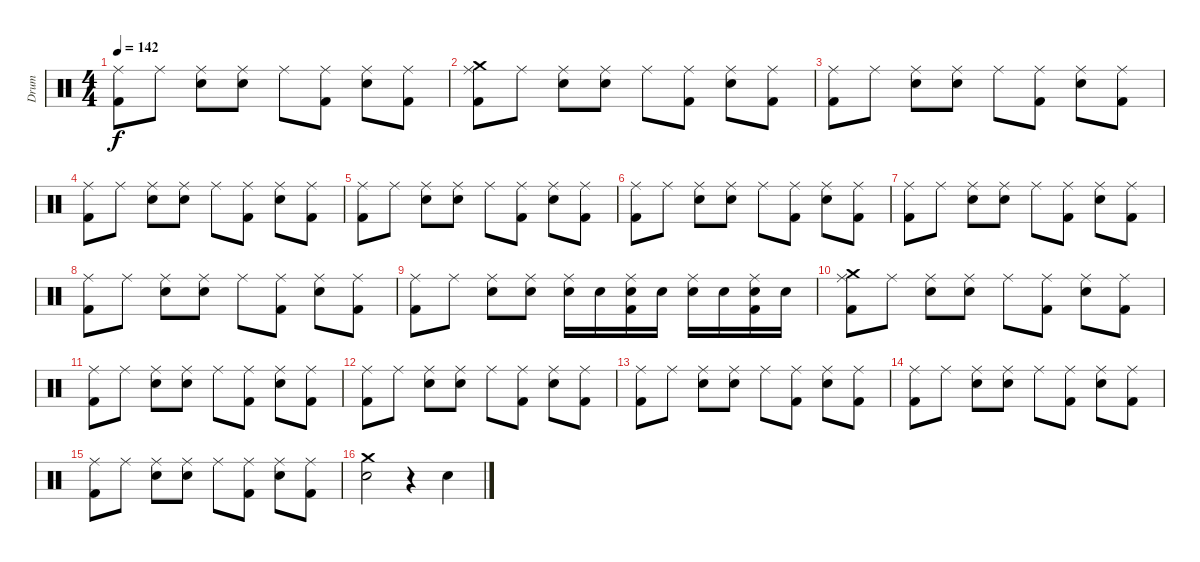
\track ("Drum" "Drum") {instrument percussion}
\staff {score}
\articulation defaults
\ts (4 4)
\tempo 142
\clef neutral
\ks c
("Kick (hit) 2" "Ride (middle)").8{dy f} "Ride (middle)".8 ("Electric Snare (hit)" "Ride (middle)").8 ("Electric Snare (hit)" "Ride (middle)").8 "Ride (middle)".8 ("Ride (middle)" "Kick (hit) 2").8 ("Ride (middle)" "Electric Snare (hit)").8 ("Ride (middle)" "Kick (hit) 2").8 |
("Kick (hit) 2" "Ride (middle)" "Crash medium (hit)").8 "Ride (middle)".8 ("Electric Snare (hit)" "Ride (middle)").8 ("Electric Snare (hit)" "Ride (middle)").8 "Ride (middle)".8 ("Ride (middle)" "Kick (hit) 2").8 ("Ride (middle)" "Electric Snare (hit)").8 ("Ride (middle)" "Kick (hit) 2").8 |
("Kick (hit) 2" "Ride (middle)").8 "Ride (middle)".8 ("Electric Snare (hit)" "Ride (middle)").8 ("Electric Snare (hit)" "Ride (middle)").8 "Ride (middle)".8 ("Ride (middle)" "Kick (hit) 2").8 ("Ride (middle)" "Electric Snare (hit)").8 ("Ride (middle)" "Kick (hit) 2").8 |
("Kick (hit) 2" "Ride (middle)").8 "Ride (middle)".8 ("Electric Snare (hit)" "Ride (middle)").8 ("Electric Snare (hit)" "Ride (middle)").8 "Ride (middle)".8 ("Ride (middle)" "Kick (hit) 2").8 ("Ride (middle)" "Electric Snare (hit)").8 ("Ride (middle)" "Kick (hit) 2").8 |
("Kick (hit) 2" "Ride (middle)").8 "Ride (middle)".8 ("Electric Snare (hit)" "Ride (middle)").8 ("Electric Snare (hit)" "Ride (middle)").8 "Ride (middle)".8 ("Ride (middle)" "Kick (hit) 2").8 ("Ride (middle)" "Electric Snare (hit)").8 ("Ride (middle)" "Kick (hit) 2").8 |
("Kick (hit) 2" "Ride (middle)").8 "Ride (middle)".8 ("Electric Snare (hit)" "Ride (middle)").8 ("Electric Snare (hit)" "Ride (middle)").8 "Ride (middle)".8 ("Ride (middle)" "Kick (hit) 2").8 ("Ride (middle)" "Electric Snare (hit)").8 ("Ride (middle)" "Kick (hit) 2").8 |
("Ride (middle)" "Kick (hit) 2").8 "Ride (middle)".8 ("Electric Snare (hit)" "Ride (middle)").8 ("Electric Snare (hit)" "Ride (middle)").8 "Ride (middle)".8 ("Ride (middle)" "Kick (hit) 2").8 ("Ride (middle)" "Electric Snare (hit)").8 ("Ride (middle)" "Kick (hit) 2").8 |
("Kick (hit) 2" "Ride (middle)").8 "Ride (middle)".8 ("Electric Snare (hit)" "Ride (middle)").8 ("Electric Snare (hit)" "Ride (middle)").8 "Ride (middle)".8 ("Ride (middle)" "Kick (hit) 2").8 ("Ride (middle)" "Electric Snare (hit)").8 ("Ride (middle)" "Kick (hit) 2").8 |
("Kick (hit) 2" "Ride (middle)").8 "Ride (middle)".8 ("Electric Snare (hit)" "Ride (middle)").8 ("Ride (middle)" "Electric Snare (hit)").8 ("Ride (middle)" "Electric Snare (hit)").16 "Electric Snare (hit)".16 ("Ride (middle)" "Kick (hit) 2" "Electric Snare (hit)").16 "Electric Snare (hit)".16 ("Ride (middle)" "Electric Snare (hit)").16 "Electric Snare (hit)".16 ("Ride (middle)" "Kick (hit) 2" "Electric Snare (hit)").16 "Electric Snare (hit)".16 |
("Kick (hit) 2" "Ride (middle)" "Crash medium (hit)").8 "Ride (middle)".8 ("Electric Snare (hit)" "Ride (middle)").8 ("Electric Snare (hit)" "Ride (middle)").8 "Ride (middle)".8 ("Ride (middle)" "Kick (hit) 2").8 ("Ride (middle)" "Electric Snare (hit)").8 ("Ride (middle)" "Kick (hit) 2").8 |
("Kick (hit) 2" "Ride (middle)").8 "Ride (middle)".8 ("Electric Snare (hit)" "Ride (middle)").8 ("Electric Snare (hit)" "Ride (middle)").8 "Ride (middle)".8 ("Ride (middle)" "Kick (hit) 2").8 ("Ride (middle)" "Electric Snare (hit)").8 ("Ride (middle)" "Kick (hit) 2").8 |
("Kick (hit) 2" "Ride (middle)").8 "Ride (middle)".8 ("Electric Snare (hit)" "Ride (middle)").8 ("Electric Snare (hit)" "Ride (middle)").8 "Ride (middle)".8 ("Ride (middle)" "Kick (hit) 2").8 ("Ride (middle)" "Electric Snare (hit)").8 ("Ride (middle)" "Kick (hit) 2").8 |
("Kick (hit) 2" "Ride (middle)").8 "Ride (middle)".8 ("Electric Snare (hit)" "Ride (middle)").8 ("Electric Snare (hit)" "Ride (middle)").8 "Ride (middle)".8 ("Ride (middle)" "Kick (hit) 2").8 ("Ride (middle)" "Electric Snare (hit)").8 ("Ride (middle)" "Kick (hit) 2").8 |
("Kick (hit) 2" "Ride (middle)").8 "Ride (middle)".8 ("Electric Snare (hit)" "Ride (middle)").8 ("Electric Snare (hit)" "Ride (middle)").8 "Ride (middle)".8 ("Ride (middle)" "Kick (hit) 2").8 ("Ride (middle)" "Electric Snare (hit)").8 ("Ride (middle)" "Kick (hit) 2").8 |
("Kick (hit) 2" "Ride (middle)").8 "Ride (middle)".8 ("Electric Snare (hit)" "Ride (middle)").8 ("Electric Snare (hit)" "Ride (middle)").8 "Ride (middle)".8 ("Ride (middle)" "Kick (hit) 2").8 ("Ride (middle)" "Electric Snare (hit)").8 ("Ride (middle)" "Kick (hit) 2").8 |
("Crash medium (hit)" "Electric Snare (hit)").2 r.4 "Electric Snare (hit)".4
